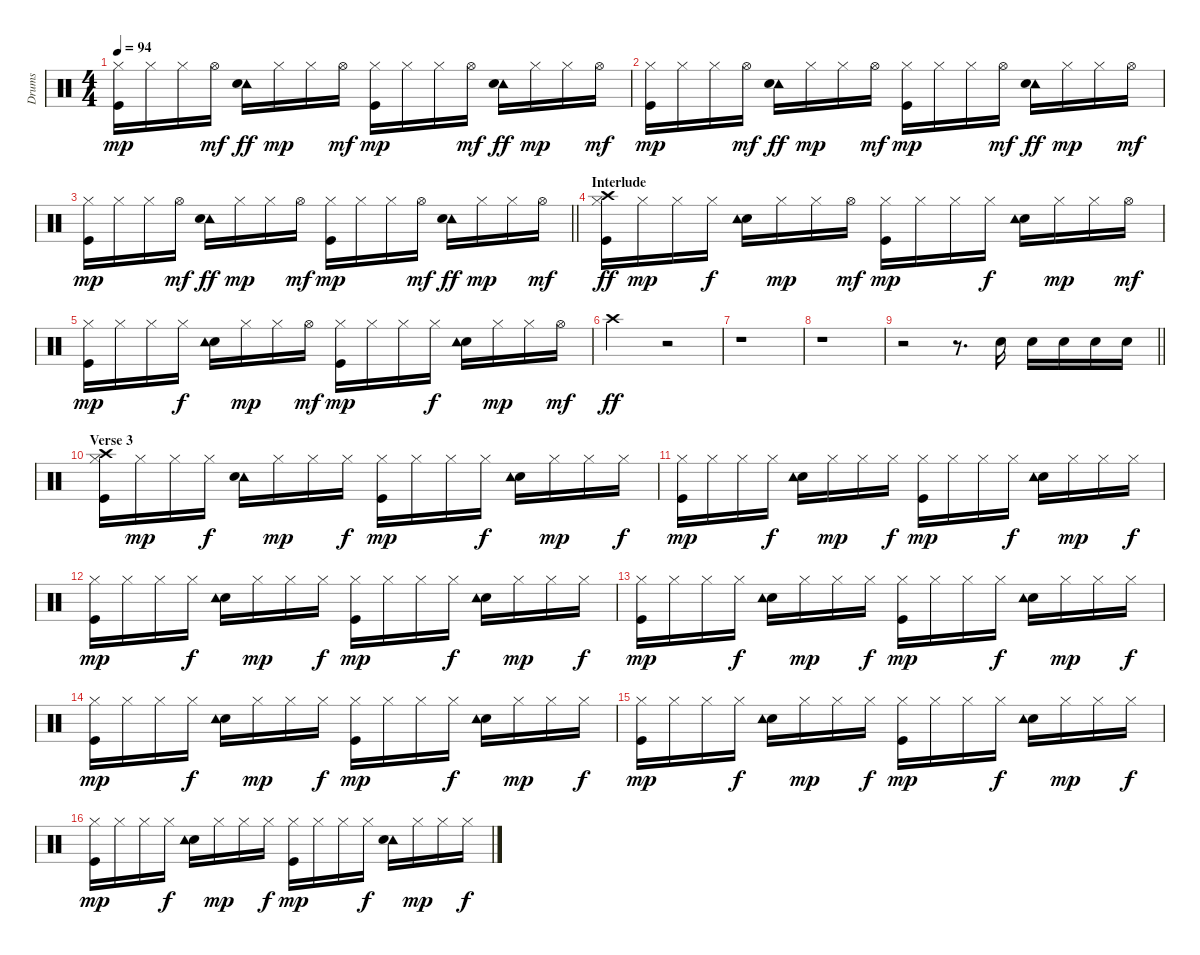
\track ("Drums" "Drums") {instrument percussion}
\staff {score}
\articulation defaults
\ts (4 4)
\tempo 94
\clef neutral
\ks c
("Hi-Hat (closed)" "Kick (hit)").16{dy mp} "Hi-Hat (closed)".16 "Hi-Hat (closed)".16 "Hi-Hat (open)".16{dy mf} ("Tambourine (hit)" "Snare (hit) 2").16{dy ff} "Hi-Hat (closed)".16{dy mp} "Hi-Hat (closed)".16 "Hi-Hat (open)".16{dy mf} ("Hi-Hat (closed)" "Kick (hit)").16{dy mp} "Hi-Hat (closed)".16 "Hi-Hat (closed)".16 "Hi-Hat (open)".16{dy mf} ("Tambourine (hit)" "Snare (hit) 2").16{dy ff} "Hi-Hat (closed)".16{dy mp} "Hi-Hat (closed)".16 "Hi-Hat (open)".16{dy mf} |
("Hi-Hat (closed)" "Kick (hit)").16{dy mp} "Hi-Hat (closed)".16 "Hi-Hat (closed)".16 "Hi-Hat (open)".16{dy mf} ("Tambourine (hit)" "Snare (hit) 2").16{dy ff} "Hi-Hat (closed)".16{dy mp} "Hi-Hat (closed)".16 "Hi-Hat (open)".16{dy mf} ("Hi-Hat (closed)" "Kick (hit)").16{dy mp} "Hi-Hat (closed)".16 "Hi-Hat (closed)".16 "Hi-Hat (open)".16{dy mf} ("Tambourine (hit)" "Snare (hit) 2").16{dy ff} "Hi-Hat (closed)".16{dy mp} "Hi-Hat (closed)".16 "Hi-Hat (open)".16{dy mf} |
\barLineRight lightlight
("Hi-Hat (closed)" "Kick (hit)").16{dy mp} "Hi-Hat (closed)".16 "Hi-Hat (closed)".16 "Hi-Hat (open)".16{dy mf} ("Tambourine (hit)" "Snare (hit) 2").16{dy ff} "Hi-Hat (closed)".16{dy mp} "Hi-Hat (closed)".16 "Hi-Hat (open)".16{dy mf} ("Hi-Hat (closed)" "Kick (hit)").16{dy mp} "Hi-Hat (closed)".16 "Hi-Hat (closed)".16 "Hi-Hat (open)".16{dy mf} ("Tambourine (hit)" "Snare (hit) 2").16{dy ff} "Hi-Hat (closed)".16{dy mp} "Hi-Hat (closed)".16 "Hi-Hat (open)".16{dy mf} |
\section ("" "Interlude")
("Hi-Hat (closed)" "Kick (hit)" "Crash high (hit)").16{dy ff} "Hi-Hat (closed)".16{dy mp} "Hi-Hat (closed)".16 "Hi-Hat (closed)".16{dy f} ("Snare (hit) 2" "Tambourine (hit)").16 "Hi-Hat (closed)".16{dy mp} "Hi-Hat (closed)".16 "Hi-Hat (open)".16{dy mf} ("Hi-Hat (closed)" "Kick (hit)").16{dy mp} "Hi-Hat (closed)".16 "Hi-Hat (closed)".16 "Hi-Hat (closed)".16{dy f} ("Snare (hit) 2" "Tambourine (hit)").16 "Hi-Hat (closed)".16{dy mp} "Hi-Hat (closed)".16 "Hi-Hat (open)".16{dy mf} |
("Hi-Hat (closed)" "Kick (hit)").16{dy mp} "Hi-Hat (closed)".16 "Hi-Hat (closed)".16 "Hi-Hat (closed)".16{dy f} ("Snare (hit) 2" "Tambourine (hit)").16 "Hi-Hat (closed)".16{dy mp} "Hi-Hat (closed)".16 "Hi-Hat (open)".16{dy mf} ("Hi-Hat (closed)" "Kick (hit)").16{dy mp} "Hi-Hat (closed)".16 "Hi-Hat (closed)".16 "Hi-Hat (closed)".16{dy f} ("Snare (hit) 2" "Tambourine (hit)").16 "Hi-Hat (closed)".16{dy mp} "Hi-Hat (closed)".16 "Hi-Hat (open)".16{dy mf} |
"Crash high (hit)".2{dy ff} r.2 |
r.1 |
r.1 |
\barLineRight lightlight
r.2 r.8{d} "Snare (hit) 2".16 "Snare (hit) 2".16 "Snare (hit) 2".16 "Snare (hit) 2".16 "Snare (hit) 2".16 |
\section ("" "Verse 3")
("Hi-Hat (closed)" "Kick (hit)" "Crash high (hit)").16 "Hi-Hat (closed)".16{dy mp} "Hi-Hat (closed)".16 "Hi-Hat (closed)".16{dy f} ("Tambourine (hit)" "Snare (hit) 2").16 "Hi-Hat (closed)".16{dy mp} "Hi-Hat (closed)".16 "Hi-Hat (closed)".16{dy f} ("Hi-Hat (closed)" "Kick (hit)").16{dy mp} "Hi-Hat (closed)".16 "Hi-Hat (closed)".16 "Hi-Hat (closed)".16{dy f} ("Snare (hit) 2" "Tambourine (hit)").16 "Hi-Hat (closed)".16{dy mp} "Hi-Hat (closed)".16 "Hi-Hat (closed)".16{dy f} |
("Hi-Hat (closed)" "Kick (hit)").16{dy mp} "Hi-Hat (closed)".16 "Hi-Hat (closed)".16 "Hi-Hat (closed)".16{dy f} ("Snare (hit) 2" "Tambourine (hit)").16 "Hi-Hat (closed)".16{dy mp} "Hi-Hat (closed)".16 "Hi-Hat (closed)".16{dy f} ("Hi-Hat (closed)" "Kick (hit)").16{dy mp} "Hi-Hat (closed)".16 "Hi-Hat (closed)".16 "Hi-Hat (closed)".16{dy f} ("Snare (hit) 2" "Tambourine (hit)").16 "Hi-Hat (closed)".16{dy mp} "Hi-Hat (closed)".16 "Hi-Hat (closed)".16{dy f} |
("Hi-Hat (closed)" "Kick (hit)").16{dy mp} "Hi-Hat (closed)".16 "Hi-Hat (closed)".16 "Hi-Hat (closed)".16{dy f} ("Snare (hit) 2" "Tambourine (hit)").16 "Hi-Hat (closed)".16{dy mp} "Hi-Hat (closed)".16 "Hi-Hat (closed)".16{dy f} ("Hi-Hat (closed)" "Kick (hit)").16{dy mp} "Hi-Hat (closed)".16 "Hi-Hat (closed)".16 "Hi-Hat (closed)".16{dy f} ("Snare (hit) 2" "Tambourine (hit)").16 "Hi-Hat (closed)".16{dy mp} "Hi-Hat (closed)".16 "Hi-Hat (closed)".16{dy f} |
("Hi-Hat (closed)" "Kick (hit)").16{dy mp} "Hi-Hat (closed)".16 "Hi-Hat (closed)".16 "Hi-Hat (closed)".16{dy f} ("Snare (hit) 2" "Tambourine (hit)").16 "Hi-Hat (closed)".16{dy mp} "Hi-Hat (closed)".16 "Hi-Hat (closed)".16{dy f} ("Hi-Hat (closed)" "Kick (hit)").16{dy mp} "Hi-Hat (closed)".16 "Hi-Hat (closed)".16 "Hi-Hat (closed)".16{dy f} ("Snare (hit) 2" "Tambourine (hit)").16 "Hi-Hat (closed)".16{dy mp} "Hi-Hat (closed)".16 "Hi-Hat (closed)".16{dy f} |
("Hi-Hat (closed)" "Kick (hit)").16{dy mp} "Hi-Hat (closed)".16 "Hi-Hat (closed)".16 "Hi-Hat (closed)".16{dy f} ("Snare (hit) 2" "Tambourine (hit)").16 "Hi-Hat (closed)".16{dy mp} "Hi-Hat (closed)".16 "Hi-Hat (closed)".16{dy f} ("Hi-Hat (closed)" "Kick (hit)").16{dy mp} "Hi-Hat (closed)".16 "Hi-Hat (closed)".16 "Hi-Hat (closed)".16{dy f} ("Snare (hit) 2" "Tambourine (hit)").16 "Hi-Hat (closed)".16{dy mp} "Hi-Hat (closed)".16 "Hi-Hat (closed)".16{dy f} |
("Hi-Hat (closed)" "Kick (hit)").16{dy mp} "Hi-Hat (closed)".16 "Hi-Hat (closed)".16 "Hi-Hat (closed)".16{dy f} ("Snare (hit) 2" "Tambourine (hit)").16 "Hi-Hat (closed)".16{dy mp} "Hi-Hat (closed)".16 "Hi-Hat (closed)".16{dy f} ("Hi-Hat (closed)" "Kick (hit)").16{dy mp} "Hi-Hat (closed)".16 "Hi-Hat (closed)".16 "Hi-Hat (closed)".16{dy f} ("Snare (hit) 2" "Tambourine (hit)").16 "Hi-Hat (closed)".16{dy mp} "Hi-Hat (closed)".16 "Hi-Hat (closed)".16{dy f} |
("Hi-Hat (closed)" "Kick (hit)").16{dy mp} "Hi-Hat (closed)".16 "Hi-Hat (closed)".16 "Hi-Hat (closed)".16{dy f} ("Snare (hit) 2" "Tambourine (hit)").16 "Hi-Hat (closed)".16{dy mp} "Hi-Hat (closed)".16 "Hi-Hat (closed)".16{dy f} ("Hi-Hat (closed)" "Kick (hit)").16{dy mp} "Hi-Hat (closed)".16 "Hi-Hat (closed)".16 "Hi-Hat (closed)".16{dy f} ("Tambourine (hit)" "Snare (hit) 2").16 "Hi-Hat (closed)".16{dy mp} "Hi-Hat (closed)".16 "Hi-Hat (closed)".16{dy f}
